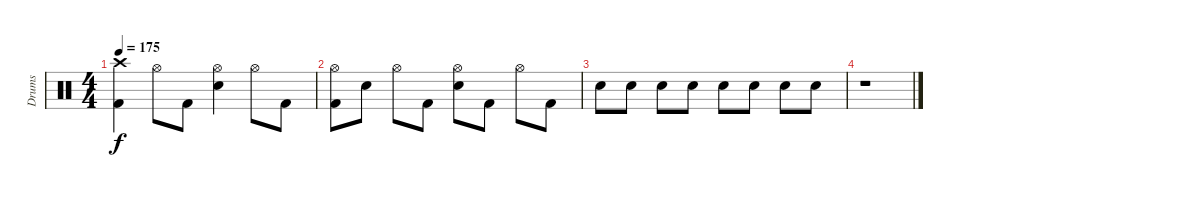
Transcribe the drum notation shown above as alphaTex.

\track ("Drums" "Drums") {instrument percussion}
\staff {score}
\articulation defaults
\ts (4 4)
\tempo 175
\clef neutral
\ks c
("Crash high (hit)" "Kick (hit) 2").4{dy f} "Hi-Hat (open)".8 "Kick (hit) 2".8 ("Hi-Hat (open)" "Electric Snare (hit)").4 "Hi-Hat (open)".8 "Kick (hit) 2".8 |
("Hi-Hat (open)" "Kick (hit) 2").8 "Electric Snare (hit)".8 "Hi-Hat (open)".8 "Kick (hit) 2".8 ("Hi-Hat (open)" "Electric Snare (hit)").8 "Kick (hit) 2".8 "Hi-Hat (open)".8 "Kick (hit) 2".8 |
"Electric Snare (hit)".8 "Electric Snare (hit)".8 "Electric Snare (hit)".8 "Electric Snare (hit)".8 "Electric Snare (hit)".8 "Electric Snare (hit)".8 "Electric Snare (hit)".8 "Electric Snare (hit)".8 |
r.1
